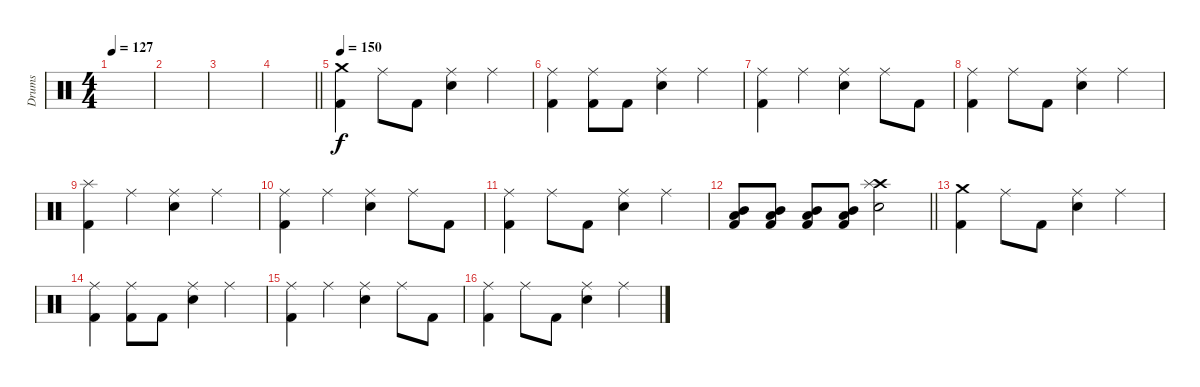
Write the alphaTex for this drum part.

\track ("Drums" "Drums") {instrument percussion}
\staff {score}
\articulation defaults
\ts (4 4)
\tempo 127
\clef neutral
\ks c
|
|
|
\barLineRight lightlight
|
\section ("" "")
\tempo 150
("Crash medium (hit)" "Kick (hit) 2").4 "Ride (middle)".8 "Kick (hit) 2".8 ("Ride (middle)" "Electric Snare (hit)").4 "Ride (middle)".4 |
("Ride (middle)" "Kick (hit) 2").4 ("Ride (middle)" "Kick (hit) 2").8 "Kick (hit) 2".8 ("Ride (middle)" "Electric Snare (hit)").4 "Ride (middle)".4 |
("Ride (middle)" "Kick (hit) 2").4 "Ride (middle)".4 ("Ride (middle)" "Electric Snare (hit)").4 "Ride (middle)".8 "Kick (hit) 2".8 |
("Ride (middle)" "Kick (hit) 2").4 "Ride (middle)".8 "Kick (hit) 2".8 ("Ride (middle)" "Electric Snare (hit)").4 "Ride (middle)".4 |
("Splash (hit)" "Kick (hit) 2").4 "Ride (middle)".4 ("Ride (middle)" "Electric Snare (hit)").4 "Ride (middle)".4 |
("Ride (middle)" "Kick (hit) 2").4 "Ride (middle)".4 ("Ride (middle)" "Electric Snare (hit)").4 "Ride (middle)".8 "Kick (hit) 2".8 |
("Ride (middle)" "Kick (hit) 2").4 "Ride (middle)".8 "Kick (hit) 2".8 ("Ride (middle)" "Electric Snare (hit)").4 "Ride (middle)".4 |
\barLineRight lightlight
("Mid Tom (hit)" "Low Tom (hit)" "Kick (hit) 2").8 ("Mid Tom (hit)" "Low Tom (hit)" "Kick (hit) 2").8 ("Mid Tom (hit)" "Low Tom (hit)" "Kick (hit) 2").8 ("Mid Tom (hit)" "Low Tom (hit)" "Kick (hit) 2").8 ("Crash high (hit)" "Splash (hit)" "Electric Snare (hit)").2 |
\section ("" "")
("Crash medium (hit)" "Kick (hit) 2").4 "Ride (middle)".8 "Kick (hit) 2".8 ("Ride (middle)" "Electric Snare (hit)").4 "Ride (middle)".4 |
("Ride (middle)" "Kick (hit) 2").4 ("Ride (middle)" "Kick (hit) 2").8 "Kick (hit) 2".8 ("Ride (middle)" "Electric Snare (hit)").4 "Ride (middle)".4 |
("Ride (middle)" "Kick (hit) 2").4 "Ride (middle)".4 ("Ride (middle)" "Electric Snare (hit)").4 "Ride (middle)".8 "Kick (hit) 2".8 |
("Ride (middle)" "Kick (hit) 2").4 "Ride (middle)".8 "Kick (hit) 2".8 ("Ride (middle)" "Electric Snare (hit)").4 "Ride (middle)".4
